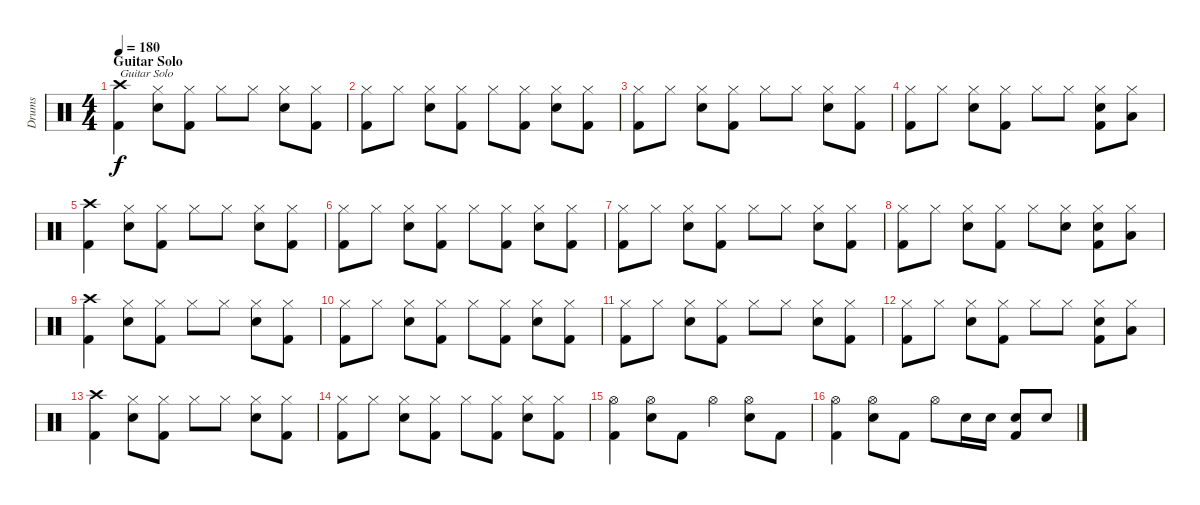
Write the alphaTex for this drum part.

\track ("Drums" "Drums") {instrument percussion}
\staff {score}
\articulation defaults
\ts (4 4)
\section ("" "Guitar Solo")
\tempo 180
\clef neutral
\ks c
("Crash high (hit)" "Kick (hit) 2").4{txt "Guitar Solo" dy f} ("Hi-Hat (closed)" "Electric Snare (hit)").8 ("Hi-Hat (closed)" "Kick (hit) 2").8 "Hi-Hat (closed)".8 "Hi-Hat (closed)".8 ("Hi-Hat (closed)" "Electric Snare (hit)").8 ("Hi-Hat (closed)" "Kick (hit) 2").8 |
("Hi-Hat (closed)" "Kick (hit) 2").8 "Hi-Hat (closed)".8 ("Hi-Hat (closed)" "Electric Snare (hit)").8 ("Hi-Hat (closed)" "Kick (hit) 2").8 "Hi-Hat (closed)".8 ("Hi-Hat (closed)" "Kick (hit) 2").8 ("Hi-Hat (closed)" "Electric Snare (hit)").8 ("Hi-Hat (closed)" "Kick (hit) 2").8 |
("Hi-Hat (closed)" "Kick (hit) 2").8 "Hi-Hat (closed)".8 ("Hi-Hat (closed)" "Electric Snare (hit)").8 ("Hi-Hat (closed)" "Kick (hit) 2").8 "Hi-Hat (closed)".8 "Hi-Hat (closed)".8 ("Hi-Hat (closed)" "Electric Snare (hit)").8 ("Hi-Hat (closed)" "Kick (hit) 2").8 |
("Hi-Hat (closed)" "Kick (hit) 2").8 "Hi-Hat (closed)".8 ("Hi-Hat (closed)" "Electric Snare (hit)").8 ("Hi-Hat (closed)" "Kick (hit) 2").8 "Hi-Hat (closed)".8 "Hi-Hat (closed)".8 ("Hi-Hat (closed)" "Electric Snare (hit)" "Kick (hit) 2").8 ("Hi-Hat (closed)" "Low Floor Tom (hit)").8 |
("Crash high (hit)" "Kick (hit) 2").4 ("Hi-Hat (closed)" "Electric Snare (hit)").8 ("Hi-Hat (closed)" "Kick (hit) 2").8 "Hi-Hat (closed)".8 "Hi-Hat (closed)".8 ("Hi-Hat (closed)" "Electric Snare (hit)").8 ("Hi-Hat (closed)" "Kick (hit) 2").8 |
("Hi-Hat (closed)" "Kick (hit) 2").8 "Hi-Hat (closed)".8 ("Hi-Hat (closed)" "Electric Snare (hit)").8 ("Hi-Hat (closed)" "Kick (hit) 2").8 "Hi-Hat (closed)".8 ("Hi-Hat (closed)" "Kick (hit) 2").8 ("Hi-Hat (closed)" "Electric Snare (hit)").8 ("Hi-Hat (closed)" "Kick (hit) 2").8 |
("Hi-Hat (closed)" "Kick (hit) 2").8 "Hi-Hat (closed)".8 ("Hi-Hat (closed)" "Electric Snare (hit)").8 ("Hi-Hat (closed)" "Kick (hit) 2").8 "Hi-Hat (closed)".8 "Hi-Hat (closed)".8 ("Hi-Hat (closed)" "Electric Snare (hit)").8 ("Hi-Hat (closed)" "Kick (hit) 2").8 |
("Hi-Hat (closed)" "Kick (hit) 2").8 "Hi-Hat (closed)".8 ("Hi-Hat (closed)" "Electric Snare (hit)").8 ("Hi-Hat (closed)" "Kick (hit) 2").8 "Hi-Hat (closed)".8 ("Hi-Hat (closed)" "Electric Snare (hit)").8 ("Hi-Hat (closed)" "Electric Snare (hit)" "Kick (hit) 2").8 ("Hi-Hat (closed)" "Low Floor Tom (hit)").8 |
("Crash high (hit)" "Kick (hit) 2").4 ("Hi-Hat (closed)" "Electric Snare (hit)").8 ("Hi-Hat (closed)" "Kick (hit) 2").8 "Hi-Hat (closed)".8 "Hi-Hat (closed)".8 ("Hi-Hat (closed)" "Electric Snare (hit)").8 ("Hi-Hat (closed)" "Kick (hit) 2").8 |
("Hi-Hat (closed)" "Kick (hit) 2").8 "Hi-Hat (closed)".8 ("Hi-Hat (closed)" "Electric Snare (hit)").8 ("Hi-Hat (closed)" "Kick (hit) 2").8 "Hi-Hat (closed)".8 ("Hi-Hat (closed)" "Kick (hit) 2").8 ("Hi-Hat (closed)" "Electric Snare (hit)").8 ("Hi-Hat (closed)" "Kick (hit) 2").8 |
("Hi-Hat (closed)" "Kick (hit) 2").8 "Hi-Hat (closed)".8 ("Hi-Hat (closed)" "Electric Snare (hit)").8 ("Hi-Hat (closed)" "Kick (hit) 2").8 "Hi-Hat (closed)".8 "Hi-Hat (closed)".8 ("Hi-Hat (closed)" "Electric Snare (hit)").8 ("Hi-Hat (closed)" "Kick (hit) 2").8 |
("Hi-Hat (closed)" "Kick (hit) 2").8 "Hi-Hat (closed)".8 ("Hi-Hat (closed)" "Electric Snare (hit)").8 ("Hi-Hat (closed)" "Kick (hit) 2").8 "Hi-Hat (closed)".8 "Hi-Hat (closed)".8 ("Hi-Hat (closed)" "Electric Snare (hit)" "Kick (hit) 2").8 ("Hi-Hat (closed)" "Low Floor Tom (hit)").8 |
("Crash high (hit)" "Kick (hit) 2").4 ("Hi-Hat (closed)" "Electric Snare (hit)").8 ("Hi-Hat (closed)" "Kick (hit) 2").8 "Hi-Hat (closed)".8 "Hi-Hat (closed)".8 ("Hi-Hat (closed)" "Electric Snare (hit)").8 ("Hi-Hat (closed)" "Kick (hit) 2").8 |
("Hi-Hat (closed)" "Kick (hit) 2").8 "Hi-Hat (closed)".8 ("Hi-Hat (closed)" "Electric Snare (hit)").8 ("Hi-Hat (closed)" "Kick (hit) 2").8 "Hi-Hat (closed)".8 ("Hi-Hat (closed)" "Kick (hit) 2").8 ("Hi-Hat (closed)" "Electric Snare (hit)").8 ("Hi-Hat (closed)" "Kick (hit) 2").8 |
("Hi-Hat (open)" "Kick (hit) 2").4 ("Hi-Hat (open)" "Electric Snare (hit)").8 "Kick (hit) 2".8 "Hi-Hat (open)".4 ("Hi-Hat (open)" "Electric Snare (hit)").8 "Kick (hit) 2".8 |
("Hi-Hat (open)" "Kick (hit) 2").4 ("Hi-Hat (open)" "Electric Snare (hit)").8 "Kick (hit) 2".8 "Hi-Hat (open)".8 "Electric Snare (hit)".16 "Electric Snare (hit)".16 ("Electric Snare (hit)" "Kick (hit) 2").8 "Electric Snare (hit)".8
